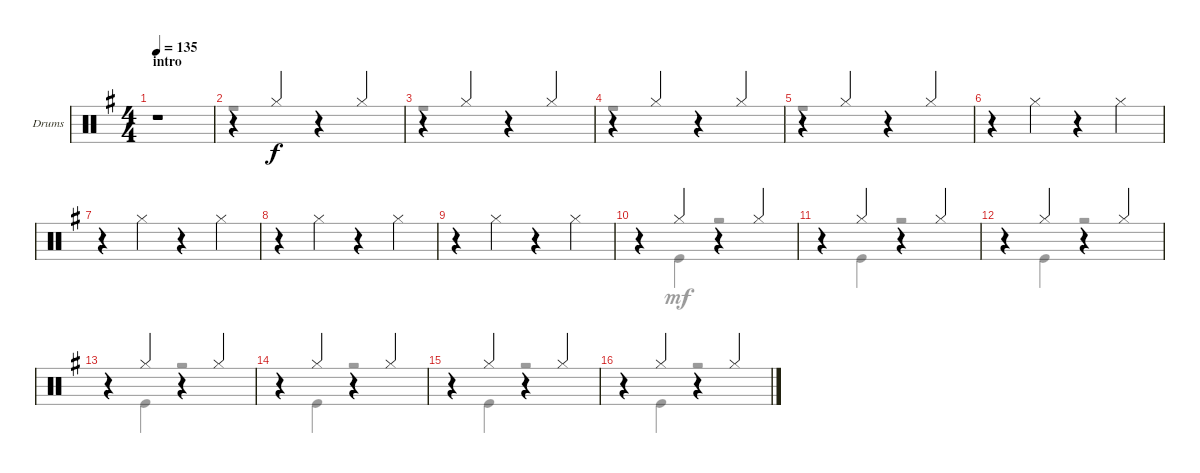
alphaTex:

\defaultSystemsLayout 4
\bracketExtendMode groupsimilarinstruments
\firstSystemTrackNameOrientation horizontal
\otherSystemsTrackNameOrientation horizontal
\track ("Drumkit" "Drums") {instrument percussion}
\staff {score}
\articulation defaults
\voice
\ts (4 4)
\section ("" "intro")
\tempo 135
\clef neutral
\ks g
r.1{dy f} |
r.4 "Hi-Hat (closed)".4 r.4 "Hi-Hat (closed)".4 |
r.4 "Hi-Hat (closed)".4 r.4 "Hi-Hat (closed)".4 |
r.4 "Hi-Hat (closed)".4 r.4 "Hi-Hat (closed)".4 |
r.4 "Hi-Hat (closed)".4 r.4 "Hi-Hat (closed)".4 |
r.4 "Hi-Hat (closed)".4 r.4 "Hi-Hat (closed)".4 |
r.4 "Hi-Hat (closed)".4 r.4 "Hi-Hat (closed)".4 |
r.4 "Hi-Hat (closed)".4 r.4 "Hi-Hat (closed)".4 |
r.4 "Hi-Hat (closed)".4 r.4 "Hi-Hat (closed)".4 |
r.4 "Hi-Hat (closed)".4 r.4 "Hi-Hat (closed)".4 |
r.4 "Hi-Hat (closed)".4 r.4 "Hi-Hat (closed)".4 |
r.4 "Hi-Hat (closed)".4 r.4 "Hi-Hat (closed)".4 |
r.4 "Hi-Hat (closed)".4 r.4 "Hi-Hat (closed)".4 |
r.4 "Hi-Hat (closed)".4 r.4 "Hi-Hat (closed)".4 |
r.4 "Hi-Hat (closed)".4 r.4 "Hi-Hat (closed)".4 |
r.4 "Hi-Hat (closed)".4 r.4 "Hi-Hat (closed)".4
\voice
\clef neutral
\ottava regular
\simile none
\ks g
r.1{dy mf} |
r.1 |
r.1 |
r.1 |
r.1 |
|
|
|
|
r.4 "Kick (hit)".4 r.2 |
r.4 "Kick (hit)".4 r.2 |
r.4 "Kick (hit)".4 r.2 |
r.4 "Kick (hit)".4 r.2 |
r.4 "Kick (hit)".4 r.2 |
r.4 "Kick (hit)".4 r.2 |
r.4 "Kick (hit)".4 r.2
